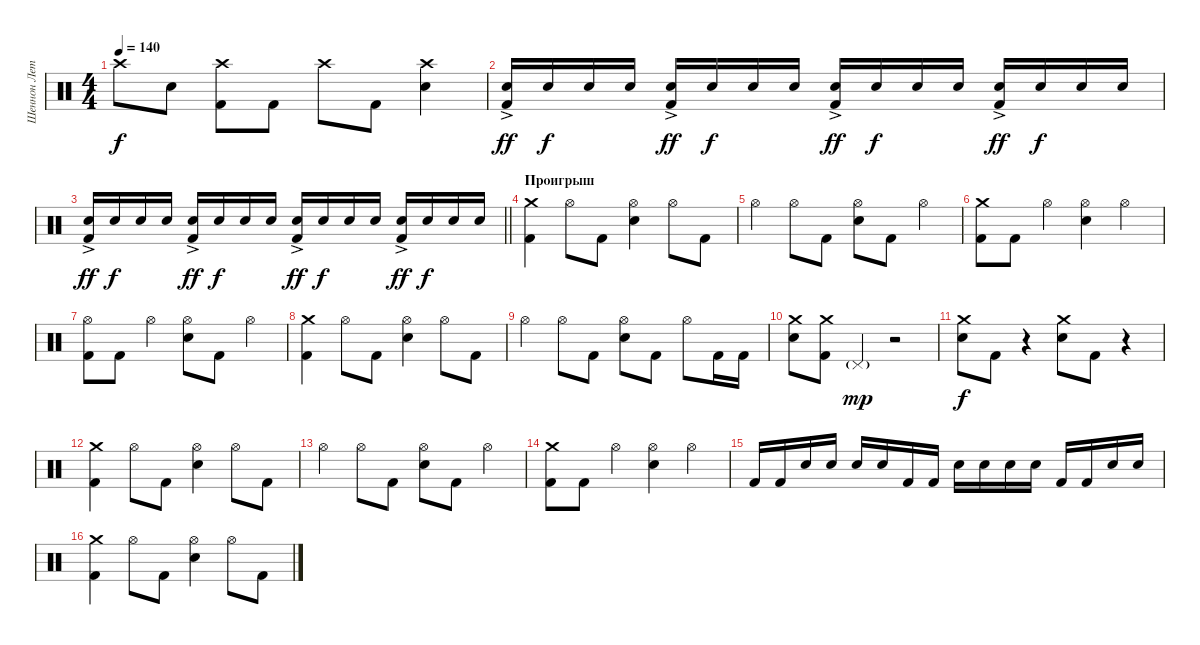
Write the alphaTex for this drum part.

\track ("Шеннон Лето" "Шеннон Лет") {instrument percussion}
\staff {score}
\articulation defaults
\ts (4 4)
\tempo 140
\clef neutral
\ks c "Crash high (hit)".8{dy f} "Electric Snare (hit)".8
("Crash high (hit)" "Kick (hit) 2").8 "Kick (hit) 2".8 "Crash high (hit)".8 "Kick (hit) 2".8 ("Crash high (hit)" "Electric Snare (hit)").4 |
("Electric Snare (hit)"{ac} "Kick (hit) 2").16{dy ff volume 7} "Electric Snare (hit)".16{dy f volume 15} "Electric Snare (hit)".16 "Electric Snare (hit)".16 ("Electric Snare (hit)"{ac} "Kick (hit) 2").16{dy ff} "Electric Snare (hit)".16{dy f} "Electric Snare (hit)".16 "Electric Snare (hit)".16 ("Electric Snare (hit)"{ac} "Kick (hit) 2").16{dy ff} "Electric Snare (hit)".16{dy f} "Electric Snare (hit)".16 "Electric Snare (hit)".16 ("Electric Snare (hit)"{ac} "Kick (hit) 2").16{dy ff} "Electric Snare (hit)".16{dy f} "Electric Snare (hit)".16 "Electric Snare (hit)".16 |
\barLineRight lightlight
("Electric Snare (hit)"{ac} "Kick (hit) 2").16{dy ff} "Electric Snare (hit)".16{dy f} "Electric Snare (hit)".16 "Electric Snare (hit)".16 ("Electric Snare (hit)"{ac} "Kick (hit) 2").16{dy ff} "Electric Snare (hit)".16{dy f} "Electric Snare (hit)".16 "Electric Snare (hit)".16 ("Electric Snare (hit)"{ac} "Kick (hit) 2").16{dy ff} "Electric Snare (hit)".16{dy f} "Electric Snare (hit)".16 "Electric Snare (hit)".16 ("Electric Snare (hit)"{ac} "Kick (hit) 2").16{dy ff} "Electric Snare (hit)".16{dy f} "Electric Snare (hit)".16 "Electric Snare (hit)".16 |
\section ("" "Проигрыш")
("Crash medium (hit)" "Kick (hit) 2").4 "Hi-Hat (open)".8 "Kick (hit) 2".8 ("Hi-Hat (open)" "Electric Snare (hit)").4 "Hi-Hat (open)".8 "Kick (hit) 2".8 |
"Hi-Hat (open)".4 "Hi-Hat (open)".8 "Kick (hit) 2".8 ("Hi-Hat (open)" "Electric Snare (hit)").8 "Kick (hit) 2".8 "Hi-Hat (open)".4 |
("Crash medium (hit)" "Kick (hit) 2").8 "Kick (hit) 2".8 "Hi-Hat (open)".4 ("Hi-Hat (open)" "Electric Snare (hit)").4 "Hi-Hat (open)".4 |
("Hi-Hat (open)" "Kick (hit) 2").8 "Kick (hit) 2".8 "Hi-Hat (open)".4 ("Hi-Hat (open)" "Electric Snare (hit)").8 "Kick (hit) 2".8 "Hi-Hat (open)".4 |
("Crash medium (hit)" "Kick (hit) 2").4 "Hi-Hat (open)".8 "Kick (hit) 2".8 ("Hi-Hat (open)" "Electric Snare (hit)").4 "Hi-Hat (open)".8 "Kick (hit) 2".8 |
"Hi-Hat (open)".4 "Hi-Hat (open)".8 "Kick (hit) 2".8 ("Hi-Hat (open)" "Electric Snare (hit)").8 "Kick (hit) 2".8 "Hi-Hat (open)".8 "Kick (hit) 2".16 "Kick (hit) 2".16 |
("Crash medium (hit)" "Electric Snare (hit)").8 ("Crash medium (hit)" "Kick (hit) 2").8 "Pedal Hi-Hat (hit)"{g}.4{dy mp} r.2 |
("Crash medium (hit)" "Electric Snare (hit)").8{dy f} "Kick (hit) 2".8 r.4 ("Crash medium (hit)" "Electric Snare (hit)").8 "Kick (hit) 2".8 r.4 |
("Crash medium (hit)" "Kick (hit) 2").4 "Hi-Hat (open)".8 "Kick (hit) 2".8 ("Hi-Hat (open)" "Electric Snare (hit)").4 "Hi-Hat (open)".8 "Kick (hit) 2".8 |
"Hi-Hat (open)".4 "Hi-Hat (open)".8 "Kick (hit) 2".8 ("Hi-Hat (open)" "Electric Snare (hit)").8 "Kick (hit) 2".8 "Hi-Hat (open)".4 |
("Crash medium (hit)" "Kick (hit) 2").8 "Kick (hit) 2".8 "Hi-Hat (open)".4 ("Hi-Hat (open)" "Electric Snare (hit)").4 "Hi-Hat (open)".4 |
"Kick (hit) 2".16 "Kick (hit) 2".16 "Electric Snare (hit)".16 "Electric Snare (hit)".16 "Electric Snare (hit)".16 "Electric Snare (hit)".16 "Kick (hit) 2".16 "Kick (hit) 2".16 "Electric Snare (hit)".16 "Electric Snare (hit)".16 "Electric Snare (hit)".16 "Electric Snare (hit)".16 "Kick (hit) 2".16 "Kick (hit) 2".16 "Electric Snare (hit)".16 "Electric Snare (hit)".16 |
("Crash medium (hit)" "Kick (hit) 2").4 "Hi-Hat (open)".8 "Kick (hit) 2".8 ("Hi-Hat (open)" "Electric Snare (hit)").4 "Hi-Hat (open)".8 "Kick (hit) 2".8
